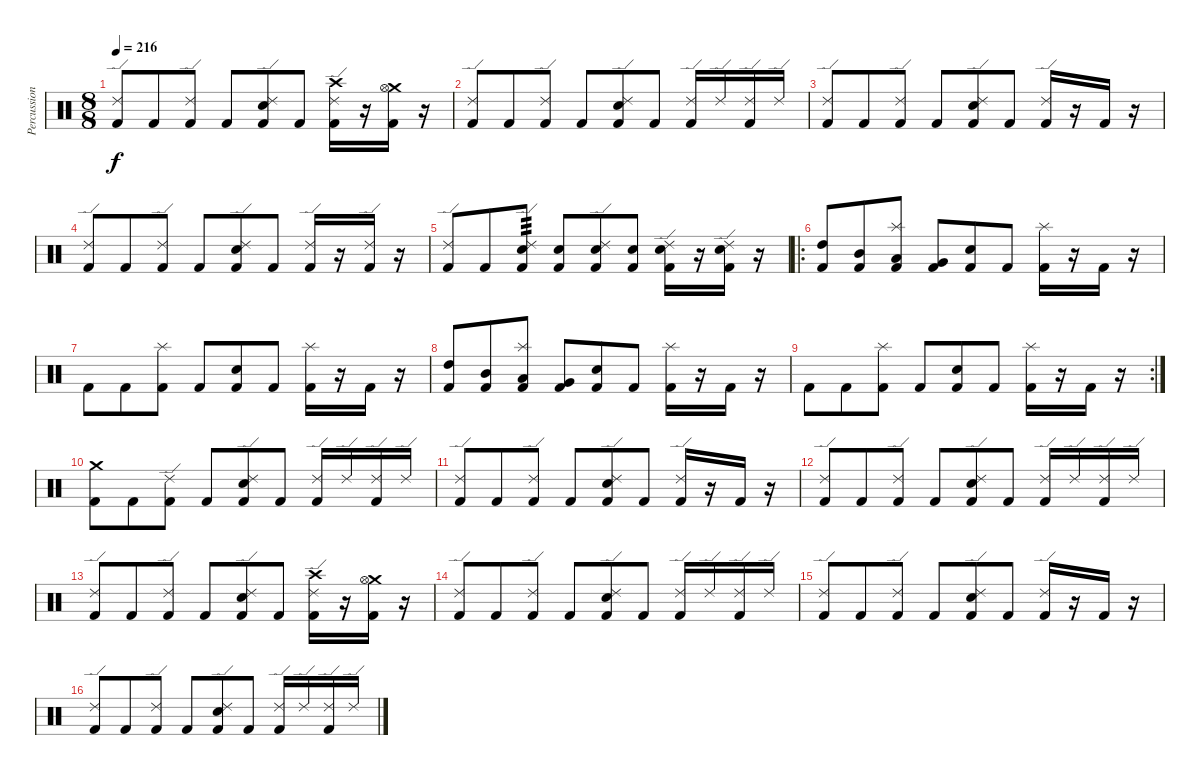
\track ("Percussions" "Percussion") {instrument percussion}
\staff {score}
\articulation defaults
\ts (8 8)
\tempo 216
\clef neutral
\ks c
("Ride (edge) 2" "Kick (hit) 2").8{dy f} "Kick (hit) 2".8 ("Ride (edge) 2" "Kick (hit) 2").8 "Kick (hit) 2".8 ("Ride (edge) 2" "Electric Snare (hit)" "Kick (hit) 2").8 "Kick (hit) 2".8 ("Crash high (hit)" "Ride (edge) 2" "Kick (hit) 2").16 r.16 ("Crash medium (hit)" "Hi-Hat (open)" "Kick (hit) 2").16 r.16 |
("Ride (edge) 2" "Kick (hit) 2").8 "Kick (hit) 2".8 ("Ride (edge) 2" "Kick (hit) 2").8 "Kick (hit) 2".8 ("Ride (edge) 2" "Electric Snare (hit)" "Kick (hit) 2").8 "Kick (hit) 2".8 ("Ride (edge) 2" "Kick (hit) 2").16 "Ride (edge) 2".16 ("Ride (edge) 2" "Kick (hit) 2").16 "Ride (edge) 2".16 |
("Ride (edge) 2" "Kick (hit) 2").8 "Kick (hit) 2".8 ("Ride (edge) 2" "Kick (hit) 2").8 "Kick (hit) 2".8 ("Ride (edge) 2" "Electric Snare (hit)" "Kick (hit) 2").8 "Kick (hit) 2".8 ("Ride (edge) 2" "Kick (hit) 2").16 r.16 "Kick (hit) 2".16 r.16 |
("Ride (edge) 2" "Kick (hit) 2").8 "Kick (hit) 2".8 ("Ride (edge) 2" "Kick (hit) 2").8 "Kick (hit) 2".8 ("Ride (edge) 2" "Electric Snare (hit)" "Kick (hit) 2").8 "Kick (hit) 2".8 ("Ride (edge) 2" "Kick (hit) 2").16 r.16 ("Ride (edge) 2" "Kick (hit) 2").16 r.16 |
("Ride (edge) 2" "Kick (hit) 2").8 "Kick (hit) 2".8 ("Ride (edge) 2" "Electric Snare (hit)" "Kick (hit) 2").8{tp 3} ("Electric Snare (hit)" "Kick (hit) 2").8 ("Ride (edge) 2" "Electric Snare (hit)" "Kick (hit) 2").8 ("Electric Snare (hit)" "Kick (hit) 2").8 ("Ride (edge) 2" "Electric Snare (hit)" "Kick (hit) 2").16 r.16 ("Ride (edge) 2" "Electric Snare (hit)" "Kick (hit) 2").16 r.16 |
\ro
("High Tom (hit)" "Kick (hit) 2").8 ("Mid Tom (hit)" "Kick (hit) 2").8 ("Splash (hit)" "Low Tom (hit)" "Kick (hit) 2").8 ("Very Low Tom (hit)" "Kick (hit) 2").8 ("Electric Snare (hit)" "Kick (hit) 2").8 "Kick (hit) 2".8 ("Splash (hit)" "Kick (hit) 2").16 r.16 "Kick (hit) 2".16 r.16 |
"Kick (hit) 2".8 "Kick (hit) 2".8 ("Splash (hit)" "Kick (hit) 2").8 "Kick (hit) 2".8 ("Electric Snare (hit)" "Kick (hit) 2").8 "Kick (hit) 2".8 ("Splash (hit)" "Kick (hit) 2").16 r.16 "Kick (hit) 2".16 r.16 |
("High Tom (hit)" "Kick (hit) 2").8 ("Mid Tom (hit)" "Kick (hit) 2").8 ("Splash (hit)" "Low Tom (hit)" "Kick (hit) 2").8 ("Very Low Tom (hit)" "Kick (hit) 2").8 ("Electric Snare (hit)" "Kick (hit) 2").8 "Kick (hit) 2".8 ("Splash (hit)" "Kick (hit) 2").16 r.16 "Kick (hit) 2".16 r.16 |
\rc 2 "Kick (hit) 2".8 "Kick (hit) 2".8
("Splash (hit)" "Kick (hit) 2").8 "Kick (hit) 2".8 ("Electric Snare (hit)" "Kick (hit) 2").8 "Kick (hit) 2".8 ("Splash (hit)" "Kick (hit) 2").16 r.16 "Kick (hit) 2".16 r.16 |
("Crash medium (hit)" "Kick (hit) 2").8 "Kick (hit) 2".8 ("Ride (edge) 2" "Kick (hit) 2").8 "Kick (hit) 2".8 ("Ride (edge) 2" "Electric Snare (hit)" "Kick (hit) 2").8 "Kick (hit) 2".8 ("Ride (edge) 2" "Kick (hit) 2").16 "Ride (edge) 2".16 ("Ride (edge) 2" "Kick (hit) 2").16 "Ride (edge) 2".16 |
("Ride (edge) 2" "Kick (hit) 2").8 "Kick (hit) 2".8 ("Ride (edge) 2" "Kick (hit) 2").8 "Kick (hit) 2".8 ("Ride (edge) 2" "Electric Snare (hit)" "Kick (hit) 2").8 "Kick (hit) 2".8 ("Ride (edge) 2" "Kick (hit) 2").16 r.16 "Kick (hit) 2".16 r.16 |
("Ride (edge) 2" "Kick (hit) 2").8 "Kick (hit) 2".8 ("Ride (edge) 2" "Kick (hit) 2").8 "Kick (hit) 2".8 ("Ride (edge) 2" "Electric Snare (hit)" "Kick (hit) 2").8 "Kick (hit) 2".8 ("Ride (edge) 2" "Kick (hit) 2").16 "Ride (edge) 2".16 ("Ride (edge) 2" "Kick (hit) 2").16 "Ride (edge) 2".16 |
("Ride (edge) 2" "Kick (hit) 2").8 "Kick (hit) 2".8 ("Ride (edge) 2" "Kick (hit) 2").8 "Kick (hit) 2".8 ("Ride (edge) 2" "Electric Snare (hit)" "Kick (hit) 2").8 "Kick (hit) 2".8 ("Crash high (hit)" "Ride (edge) 2" "Kick (hit) 2").16 r.16 ("Crash medium (hit)" "Hi-Hat (open)" "Kick (hit) 2").16 r.16 |
("Ride (edge) 2" "Kick (hit) 2").8 "Kick (hit) 2".8 ("Ride (edge) 2" "Kick (hit) 2").8 "Kick (hit) 2".8 ("Ride (edge) 2" "Electric Snare (hit)" "Kick (hit) 2").8 "Kick (hit) 2".8 ("Ride (edge) 2" "Kick (hit) 2").16 "Ride (edge) 2".16 ("Ride (edge) 2" "Kick (hit) 2").16 "Ride (edge) 2".16 |
("Ride (edge) 2" "Kick (hit) 2").8 "Kick (hit) 2".8 ("Ride (edge) 2" "Kick (hit) 2").8 "Kick (hit) 2".8 ("Ride (edge) 2" "Electric Snare (hit)" "Kick (hit) 2").8 "Kick (hit) 2".8 ("Ride (edge) 2" "Kick (hit) 2").16 r.16 "Kick (hit) 2".16 r.16 |
("Ride (edge) 2" "Kick (hit) 2").8 "Kick (hit) 2".8 ("Ride (edge) 2" "Kick (hit) 2").8 "Kick (hit) 2".8 ("Ride (edge) 2" "Electric Snare (hit)" "Kick (hit) 2").8 "Kick (hit) 2".8 ("Ride (edge) 2" "Kick (hit) 2").16 "Ride (edge) 2".16 ("Ride (edge) 2" "Kick (hit) 2").16 "Ride (edge) 2".16
